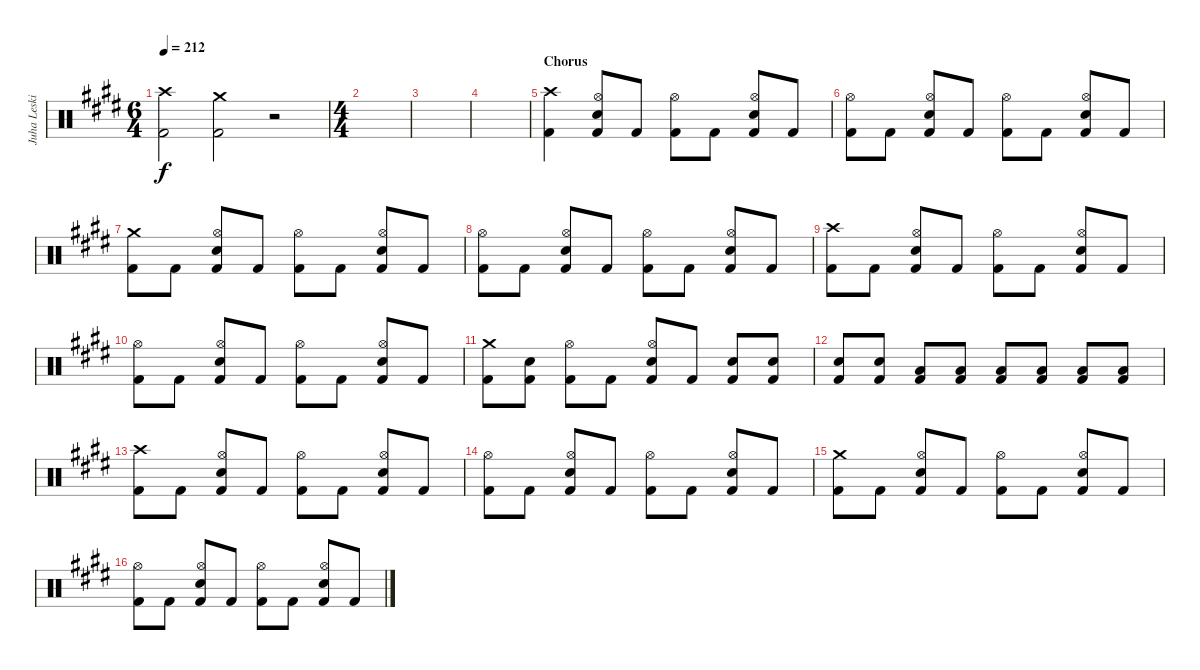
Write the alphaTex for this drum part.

\track ("Juha Leskinen - Drums" "Juha Leski") {instrument percussion}
\staff {score}
\articulation defaults
\ts (6 4)
\tempo 212
\clef neutral
\ks c#minor
("Crash high (hit)" "Kick (hit) 2").2{dy f} ("Crash medium (hit)" "Kick (hit) 2").2 r.2 |
\ts (4 4)
|
|
|
\section ("" "Chorus")
("Crash high (hit)" "Kick (hit) 2").4 ("Hi-Hat (open)" "Electric Snare (hit)" "Kick (hit) 2").8 "Kick (hit) 2".8 ("Hi-Hat (open)" "Kick (hit) 2").8 "Kick (hit) 2".8 ("Hi-Hat (open)" "Electric Snare (hit)" "Kick (hit) 2").8 "Kick (hit) 2".8 |
("Hi-Hat (open)" "Kick (hit) 2").8 "Kick (hit) 2".8 ("Hi-Hat (open)" "Electric Snare (hit)" "Kick (hit) 2").8 "Kick (hit) 2".8 ("Hi-Hat (open)" "Kick (hit) 2").8 "Kick (hit) 2".8 ("Hi-Hat (open)" "Electric Snare (hit)" "Kick (hit) 2").8 "Kick (hit) 2".8 |
("Crash medium (hit)" "Kick (hit) 2").8 "Kick (hit) 2".8 ("Hi-Hat (open)" "Electric Snare (hit)" "Kick (hit) 2").8 "Kick (hit) 2".8 ("Hi-Hat (open)" "Kick (hit) 2").8 "Kick (hit) 2".8 ("Hi-Hat (open)" "Electric Snare (hit)" "Kick (hit) 2").8 "Kick (hit) 2".8 |
("Hi-Hat (open)" "Kick (hit) 2").8 "Kick (hit) 2".8 ("Hi-Hat (open)" "Electric Snare (hit)" "Kick (hit) 2").8 "Kick (hit) 2".8 ("Hi-Hat (open)" "Kick (hit) 2").8 "Kick (hit) 2".8 ("Hi-Hat (open)" "Electric Snare (hit)" "Kick (hit) 2").8 "Kick (hit) 2".8 |
("Crash high (hit)" "Kick (hit) 2").8 "Kick (hit) 2".8 ("Hi-Hat (open)" "Electric Snare (hit)" "Kick (hit) 2").8 "Kick (hit) 2".8 ("Hi-Hat (open)" "Kick (hit) 2").8 "Kick (hit) 2".8 ("Hi-Hat (open)" "Electric Snare (hit)" "Kick (hit) 2").8 "Kick (hit) 2".8 |
("Hi-Hat (open)" "Kick (hit) 2").8 "Kick (hit) 2".8 ("Hi-Hat (open)" "Electric Snare (hit)" "Kick (hit) 2").8 "Kick (hit) 2".8 ("Hi-Hat (open)" "Kick (hit) 2").8 "Kick (hit) 2".8 ("Hi-Hat (open)" "Electric Snare (hit)" "Kick (hit) 2").8 "Kick (hit) 2".8 |
("Crash medium (hit)" "Kick (hit) 2").8 ("Electric Snare (hit)" "Kick (hit) 2").8 ("Hi-Hat (open)" "Kick (hit) 2").8 "Kick (hit) 2".8 ("Hi-Hat (open)" "Electric Snare (hit)" "Kick (hit) 2").8 "Kick (hit) 2".8 ("Electric Snare (hit)" "Kick (hit) 2").8 ("Electric Snare (hit)" "Kick (hit) 2").8 |
("Electric Snare (hit)" "Kick (hit) 2").8 ("Electric Snare (hit)" "Kick (hit) 2").8 ("Low Tom (hit)" "Kick (hit) 2").8 ("Low Tom (hit)" "Kick (hit) 2").8 ("Low Tom (hit)" "Kick (hit) 2").8 ("Low Tom (hit)" "Kick (hit) 2").8 ("Low Tom (hit)" "Kick (hit) 2").8 ("Low Tom (hit)" "Kick (hit) 2").8 |
("Crash high (hit)" "Kick (hit) 2").8 "Kick (hit) 2".8 ("Hi-Hat (open)" "Electric Snare (hit)" "Kick (hit) 2").8 "Kick (hit) 2".8 ("Hi-Hat (open)" "Kick (hit) 2").8 "Kick (hit) 2".8 ("Hi-Hat (open)" "Electric Snare (hit)" "Kick (hit) 2").8 "Kick (hit) 2".8 |
("Hi-Hat (open)" "Kick (hit) 2").8 "Kick (hit) 2".8 ("Hi-Hat (open)" "Electric Snare (hit)" "Kick (hit) 2").8 "Kick (hit) 2".8 ("Hi-Hat (open)" "Kick (hit) 2").8 "Kick (hit) 2".8 ("Hi-Hat (open)" "Electric Snare (hit)" "Kick (hit) 2").8 "Kick (hit) 2".8 |
("Crash medium (hit)" "Kick (hit) 2").8 "Kick (hit) 2".8 ("Hi-Hat (open)" "Electric Snare (hit)" "Kick (hit) 2").8 "Kick (hit) 2".8 ("Hi-Hat (open)" "Kick (hit) 2").8 "Kick (hit) 2".8 ("Hi-Hat (open)" "Electric Snare (hit)" "Kick (hit) 2").8 "Kick (hit) 2".8 |
("Hi-Hat (open)" "Kick (hit) 2").8 "Kick (hit) 2".8 ("Hi-Hat (open)" "Electric Snare (hit)" "Kick (hit) 2").8 "Kick (hit) 2".8 ("Hi-Hat (open)" "Kick (hit) 2").8 "Kick (hit) 2".8 ("Hi-Hat (open)" "Electric Snare (hit)" "Kick (hit) 2").8 "Kick (hit) 2".8
